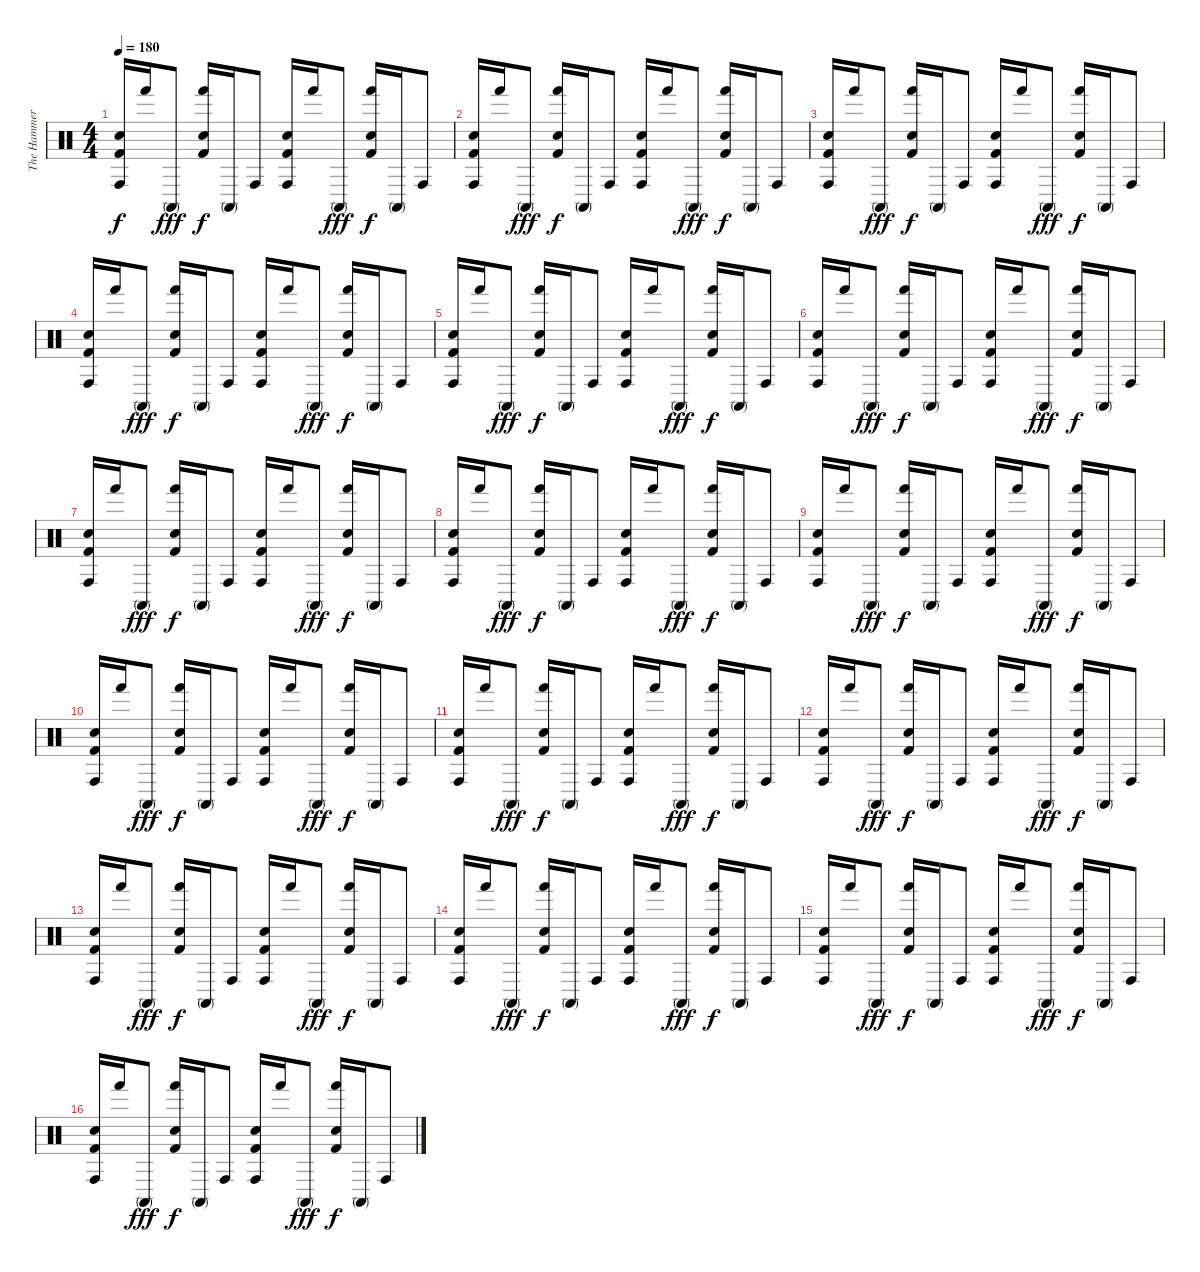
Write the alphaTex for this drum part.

\track ("The Hammer" "The Hammer") {instrument percussion}
\staff {score}
\articulation defaults
\ts (4 4)
\tempo 180
\clef neutral
\ks c
("Conga high (hit)" "Hand Clap (hit)" "Kick (hit) 2").16{dy f} "Hand (hit)".16 "Conga high (mute)".8{dy fff} ("Hand (hit)" "Hand Clap (hit)" "Kick (hit) 2").16{dy f} "Conga high (mute)".16 "Conga high (hit)".8 ("Conga high (hit)" "Hand Clap (hit)" "Kick (hit) 2").16 "Hand (hit)".16 "Conga high (mute)".8{dy fff} ("Hand (hit)" "Hand Clap (hit)" "Kick (hit) 2").16{dy f} "Conga high (mute)".16 "Conga high (hit)".8 |
("Conga high (hit)" "Hand Clap (hit)" "Kick (hit) 2").16 "Hand (hit)".16 "Conga high (mute)".8{dy fff} ("Hand (hit)" "Hand Clap (hit)" "Kick (hit) 2").16{dy f} "Conga high (mute)".16 "Conga high (hit)".8 ("Conga high (hit)" "Hand Clap (hit)" "Kick (hit) 2").16 "Hand (hit)".16 "Conga high (mute)".8{dy fff} ("Hand (hit)" "Hand Clap (hit)" "Kick (hit) 2").16{dy f} "Conga high (mute)".16 "Conga high (hit)".8 |
("Conga high (hit)" "Hand Clap (hit)" "Kick (hit) 2").16 "Hand (hit)".16 "Conga high (mute)".8{dy fff} ("Hand (hit)" "Hand Clap (hit)" "Kick (hit) 2").16{dy f} "Conga high (mute)".16 "Conga high (hit)".8 ("Conga high (hit)" "Hand Clap (hit)" "Kick (hit) 2").16 "Hand (hit)".16 "Conga high (mute)".8{dy fff} ("Hand (hit)" "Hand Clap (hit)" "Kick (hit) 2").16{dy f} "Conga high (mute)".16 "Conga high (hit)".8 |
("Conga high (hit)" "Hand Clap (hit)" "Kick (hit) 2").16 "Hand (hit)".16 "Conga high (mute)".8{dy fff} ("Hand (hit)" "Hand Clap (hit)" "Kick (hit) 2").16{dy f} "Conga high (mute)".16 "Conga high (hit)".8 ("Conga high (hit)" "Hand Clap (hit)" "Kick (hit) 2").16 "Hand (hit)".16 "Conga high (mute)".8{dy fff} ("Hand (hit)" "Hand Clap (hit)" "Kick (hit) 2").16{dy f} "Conga high (mute)".16 "Conga high (hit)".8 |
("Conga high (hit)" "Hand Clap (hit)" "Kick (hit) 2").16 "Hand (hit)".16 "Conga high (mute)".8{dy fff} ("Hand (hit)" "Hand Clap (hit)" "Kick (hit) 2").16{dy f} "Conga high (mute)".16 "Conga high (hit)".8 ("Conga high (hit)" "Hand Clap (hit)" "Kick (hit) 2").16 "Hand (hit)".16 "Conga high (mute)".8{dy fff} ("Hand (hit)" "Hand Clap (hit)" "Kick (hit) 2").16{dy f} "Conga high (mute)".16 "Conga high (hit)".8 |
("Conga high (hit)" "Hand Clap (hit)" "Kick (hit) 2").16 "Hand (hit)".16 "Conga high (mute)".8{dy fff} ("Hand (hit)" "Hand Clap (hit)" "Kick (hit) 2").16{dy f} "Conga high (mute)".16 "Conga high (hit)".8 ("Conga high (hit)" "Hand Clap (hit)" "Kick (hit) 2").16 "Hand (hit)".16 "Conga high (mute)".8{dy fff} ("Hand (hit)" "Hand Clap (hit)" "Kick (hit) 2").16{dy f} "Conga high (mute)".16 "Conga high (hit)".8 |
("Conga high (hit)" "Hand Clap (hit)" "Kick (hit) 2").16 "Hand (hit)".16 "Conga high (mute)".8{dy fff} ("Hand (hit)" "Hand Clap (hit)" "Kick (hit) 2").16{dy f} "Conga high (mute)".16 "Conga high (hit)".8 ("Conga high (hit)" "Hand Clap (hit)" "Kick (hit) 2").16 "Hand (hit)".16 "Conga high (mute)".8{dy fff} ("Hand (hit)" "Hand Clap (hit)" "Kick (hit) 2").16{dy f} "Conga high (mute)".16 "Conga high (hit)".8 |
("Conga high (hit)" "Hand Clap (hit)" "Kick (hit) 2").16 "Hand (hit)".16 "Conga high (mute)".8{dy fff} ("Hand (hit)" "Hand Clap (hit)" "Kick (hit) 2").16{dy f} "Conga high (mute)".16 "Conga high (hit)".8 ("Conga high (hit)" "Hand Clap (hit)" "Kick (hit) 2").16 "Hand (hit)".16 "Conga high (mute)".8{dy fff} ("Hand (hit)" "Hand Clap (hit)" "Kick (hit) 2").16{dy f} "Conga high (mute)".16 "Conga high (hit)".8 |
("Conga high (hit)" "Hand Clap (hit)" "Kick (hit) 2").16 "Hand (hit)".16 "Conga high (mute)".8{dy fff} ("Hand (hit)" "Hand Clap (hit)" "Kick (hit) 2").16{dy f} "Conga high (mute)".16 "Conga high (hit)".8 ("Conga high (hit)" "Hand Clap (hit)" "Kick (hit) 2").16 "Hand (hit)".16 "Conga high (mute)".8{dy fff} ("Hand (hit)" "Hand Clap (hit)" "Kick (hit) 2").16{dy f} "Conga high (mute)".16 "Conga high (hit)".8 |
("Conga high (hit)" "Hand Clap (hit)" "Kick (hit) 2").16 "Hand (hit)".16 "Conga high (mute)".8{dy fff} ("Hand (hit)" "Hand Clap (hit)" "Kick (hit) 2").16{dy f} "Conga high (mute)".16 "Conga high (hit)".8 ("Conga high (hit)" "Hand Clap (hit)" "Kick (hit) 2").16 "Hand (hit)".16 "Conga high (mute)".8{dy fff} ("Hand (hit)" "Hand Clap (hit)" "Kick (hit) 2").16{dy f} "Conga high (mute)".16 "Conga high (hit)".8 |
("Conga high (hit)" "Hand Clap (hit)" "Kick (hit) 2").16 "Hand (hit)".16 "Conga high (mute)".8{dy fff} ("Hand (hit)" "Hand Clap (hit)" "Kick (hit) 2").16{dy f} "Conga high (mute)".16 "Conga high (hit)".8 ("Conga high (hit)" "Hand Clap (hit)" "Kick (hit) 2").16 "Hand (hit)".16 "Conga high (mute)".8{dy fff} ("Hand (hit)" "Hand Clap (hit)" "Kick (hit) 2").16{dy f} "Conga high (mute)".16 "Conga high (hit)".8 |
("Conga high (hit)" "Hand Clap (hit)" "Kick (hit) 2").16 "Hand (hit)".16 "Conga high (mute)".8{dy fff} ("Hand (hit)" "Hand Clap (hit)" "Kick (hit) 2").16{dy f} "Conga high (mute)".16 "Conga high (hit)".8 ("Conga high (hit)" "Hand Clap (hit)" "Kick (hit) 2").16 "Hand (hit)".16 "Conga high (mute)".8{dy fff} ("Hand (hit)" "Hand Clap (hit)" "Kick (hit) 2").16{dy f} "Conga high (mute)".16 "Conga high (hit)".8 |
("Conga high (hit)" "Hand Clap (hit)" "Kick (hit) 2").16 "Hand (hit)".16 "Conga high (mute)".8{dy fff} ("Hand (hit)" "Hand Clap (hit)" "Kick (hit) 2").16{dy f} "Conga high (mute)".16 "Conga high (hit)".8 ("Conga high (hit)" "Hand Clap (hit)" "Kick (hit) 2").16 "Hand (hit)".16 "Conga high (mute)".8{dy fff} ("Hand (hit)" "Hand Clap (hit)" "Kick (hit) 2").16{dy f} "Conga high (mute)".16 "Conga high (hit)".8 |
("Conga high (hit)" "Hand Clap (hit)" "Kick (hit) 2").16 "Hand (hit)".16 "Conga high (mute)".8{dy fff} ("Hand (hit)" "Hand Clap (hit)" "Kick (hit) 2").16{dy f} "Conga high (mute)".16 "Conga high (hit)".8 ("Conga high (hit)" "Hand Clap (hit)" "Kick (hit) 2").16 "Hand (hit)".16 "Conga high (mute)".8{dy fff} ("Hand (hit)" "Hand Clap (hit)" "Kick (hit) 2").16{dy f} "Conga high (mute)".16 "Conga high (hit)".8 |
("Conga high (hit)" "Hand Clap (hit)" "Kick (hit) 2").16 "Hand (hit)".16 "Conga high (mute)".8{dy fff} ("Hand (hit)" "Hand Clap (hit)" "Kick (hit) 2").16{dy f} "Conga high (mute)".16 "Conga high (hit)".8 ("Conga high (hit)" "Hand Clap (hit)" "Kick (hit) 2").16 "Hand (hit)".16 "Conga high (mute)".8{dy fff} ("Hand (hit)" "Hand Clap (hit)" "Kick (hit) 2").16{dy f} "Conga high (mute)".16 "Conga high (hit)".8 |
("Conga high (hit)" "Hand Clap (hit)" "Kick (hit) 2").16 "Hand (hit)".16 "Conga high (mute)".8{dy fff} ("Hand (hit)" "Hand Clap (hit)" "Kick (hit) 2").16{dy f} "Conga high (mute)".16 "Conga high (hit)".8 ("Conga high (hit)" "Hand Clap (hit)" "Kick (hit) 2").16 "Hand (hit)".16 "Conga high (mute)".8{dy fff} ("Hand (hit)" "Hand Clap (hit)" "Kick (hit) 2").16{dy f} "Conga high (mute)".16 "Conga high (hit)".8
